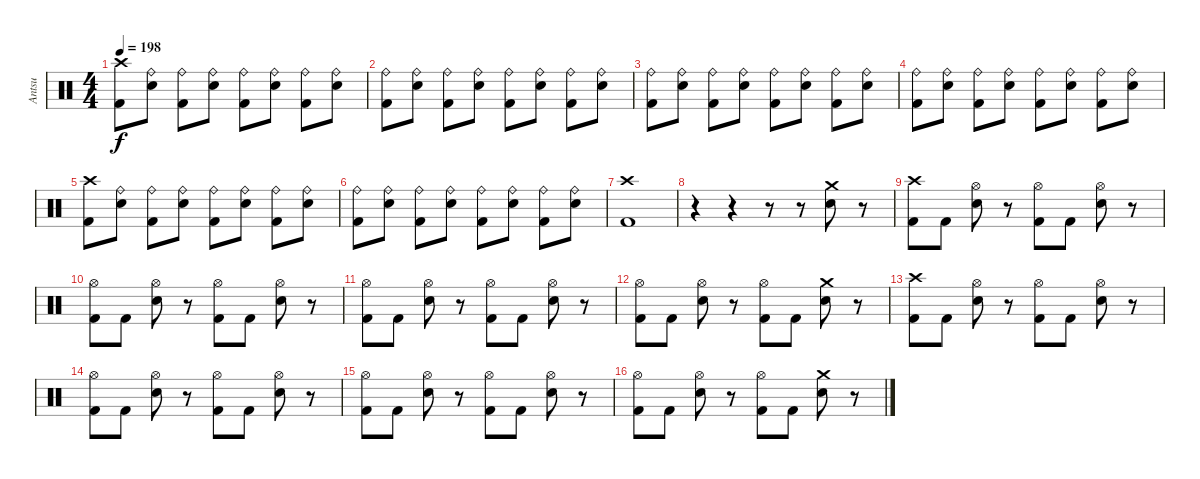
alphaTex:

\track ("Antsu" "Antsu") {instrument percussion}
\staff {score}
\articulation defaults
\ts (4 4)
\tempo 198
\clef neutral
\ks c
("Crash high (hit)" "Kick (hit) 2").8{dy f} ("Ride (bell)" "Snare (hit) 2").8 ("Ride (bell)" "Kick (hit) 2").8 ("Ride (bell)" "Snare (hit) 2").8 ("Ride (bell)" "Kick (hit) 2").8 ("Ride (bell)" "Snare (hit) 2").8 ("Ride (bell)" "Kick (hit) 2").8 ("Ride (bell)" "Snare (hit) 2").8 |
("Ride (bell)" "Kick (hit) 2").8 ("Ride (bell)" "Snare (hit) 2").8 ("Ride (bell)" "Kick (hit) 2").8 ("Ride (bell)" "Snare (hit) 2").8 ("Ride (bell)" "Kick (hit) 2").8 ("Ride (bell)" "Snare (hit) 2").8 ("Ride (bell)" "Kick (hit) 2").8 ("Ride (bell)" "Snare (hit) 2").8 |
("Ride (bell)" "Kick (hit) 2").8 ("Ride (bell)" "Snare (hit) 2").8 ("Ride (bell)" "Kick (hit) 2").8 ("Ride (bell)" "Snare (hit) 2").8 ("Ride (bell)" "Kick (hit) 2").8 ("Ride (bell)" "Snare (hit) 2").8 ("Ride (bell)" "Kick (hit) 2").8 ("Ride (bell)" "Snare (hit) 2").8 |
("Ride (bell)" "Kick (hit) 2").8 ("Ride (bell)" "Snare (hit) 2").8 ("Ride (bell)" "Kick (hit) 2").8 ("Ride (bell)" "Snare (hit) 2").8 ("Ride (bell)" "Kick (hit) 2").8 ("Ride (bell)" "Snare (hit) 2").8 ("Ride (bell)" "Kick (hit) 2").8 ("Ride (bell)" "Snare (hit) 2").8 |
("Crash high (hit)" "Kick (hit) 2").8 ("Ride (bell)" "Snare (hit) 2").8 ("Ride (bell)" "Kick (hit) 2").8 ("Ride (bell)" "Snare (hit) 2").8 ("Ride (bell)" "Kick (hit) 2").8 ("Ride (bell)" "Snare (hit) 2").8 ("Ride (bell)" "Kick (hit) 2").8 ("Ride (bell)" "Snare (hit) 2").8 |
("Ride (bell)" "Kick (hit) 2").8 ("Ride (bell)" "Snare (hit) 2").8 ("Ride (bell)" "Kick (hit) 2").8 ("Ride (bell)" "Snare (hit) 2").8 ("Ride (bell)" "Kick (hit) 2").8 ("Ride (bell)" "Snare (hit) 2").8 ("Ride (bell)" "Kick (hit) 2").8 ("Ride (bell)" "Snare (hit) 2").8 |
("Crash high (hit)" "Kick (hit) 2").1 |
r.4 r.4 r.8 r.8 ("Crash medium (hit)" "Snare (hit) 2").8 r.8 |
("Crash high (hit)" "Kick (hit) 2").8 "Kick (hit) 2".8 ("Hi-Hat (open)" "Snare (hit) 2").8 r.8 ("Hi-Hat (open)" "Kick (hit) 2").8 "Kick (hit) 2".8 ("Hi-Hat (open)" "Snare (hit) 2").8 r.8 |
("Hi-Hat (open)" "Kick (hit) 2").8 "Kick (hit) 2".8 ("Hi-Hat (open)" "Snare (hit) 2").8 r.8 ("Hi-Hat (open)" "Kick (hit) 2").8 "Kick (hit) 2".8 ("Hi-Hat (open)" "Snare (hit) 2").8 r.8 |
("Hi-Hat (open)" "Kick (hit) 2").8 "Kick (hit) 2".8 ("Hi-Hat (open)" "Snare (hit) 2").8 r.8 ("Hi-Hat (open)" "Kick (hit) 2").8 "Kick (hit) 2".8 ("Hi-Hat (open)" "Snare (hit) 2").8 r.8 |
("Hi-Hat (open)" "Kick (hit) 2").8 "Kick (hit) 2".8 ("Hi-Hat (open)" "Snare (hit) 2").8 r.8 ("Hi-Hat (open)" "Kick (hit) 2").8 "Kick (hit) 2".8 ("Crash medium (hit)" "Snare (hit) 2").8 r.8 |
("Crash high (hit)" "Kick (hit) 2").8 "Kick (hit) 2".8 ("Hi-Hat (open)" "Snare (hit) 2").8 r.8 ("Hi-Hat (open)" "Kick (hit) 2").8 "Kick (hit) 2".8 ("Hi-Hat (open)" "Snare (hit) 2").8 r.8 |
("Hi-Hat (open)" "Kick (hit) 2").8 "Kick (hit) 2".8 ("Hi-Hat (open)" "Snare (hit) 2").8 r.8 ("Hi-Hat (open)" "Kick (hit) 2").8 "Kick (hit) 2".8 ("Hi-Hat (open)" "Snare (hit) 2").8 r.8 |
("Hi-Hat (open)" "Kick (hit) 2").8 "Kick (hit) 2".8 ("Hi-Hat (open)" "Snare (hit) 2").8 r.8 ("Hi-Hat (open)" "Kick (hit) 2").8 "Kick (hit) 2".8 ("Hi-Hat (open)" "Snare (hit) 2").8 r.8 |
("Hi-Hat (open)" "Kick (hit) 2").8 "Kick (hit) 2".8 ("Hi-Hat (open)" "Snare (hit) 2").8 r.8 ("Hi-Hat (open)" "Kick (hit) 2").8 "Kick (hit) 2".8 ("Crash medium (hit)" "Snare (hit) 2").8 r.8
